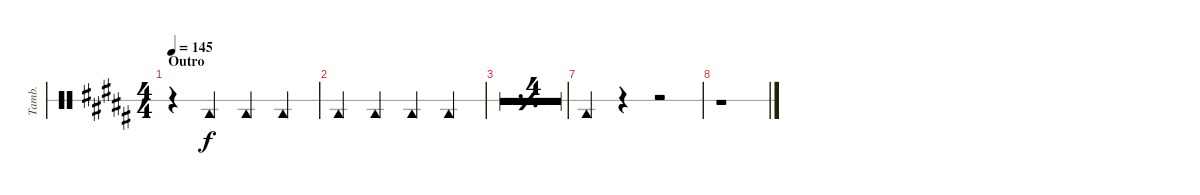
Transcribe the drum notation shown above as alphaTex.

\defaultSystemsLayout 4
\bracketExtendMode groupsimilarinstruments
\otherSystemsTrackNameOrientation horizontal
\track ("Tambourine" "Tamb.") {multiBarRest instrument percussion}
\staff {score 1}
\articulation defaults
\ts (4 4)
\section ("" "Outro")
\tempo 145
\clef neutral
\ks b
r.4{dy f} "Tambourine (hit)"{acc forcenatural}.4 "Tambourine (hit)"{acc forcenatural}.4 "Tambourine (hit)"{acc forcenatural}.4 |
"Tambourine (hit)"{acc forcenatural}.4 "Tambourine (hit)"{acc forcenatural}.4 "Tambourine (hit)"{acc forcenatural}.4 "Tambourine (hit)"{acc forcenatural}.4 |
\simile simple
|
|
|
|
\simile none "Tambourine (hit)"{acc forcenatural}.4
r.4 r.2 |
r.1
